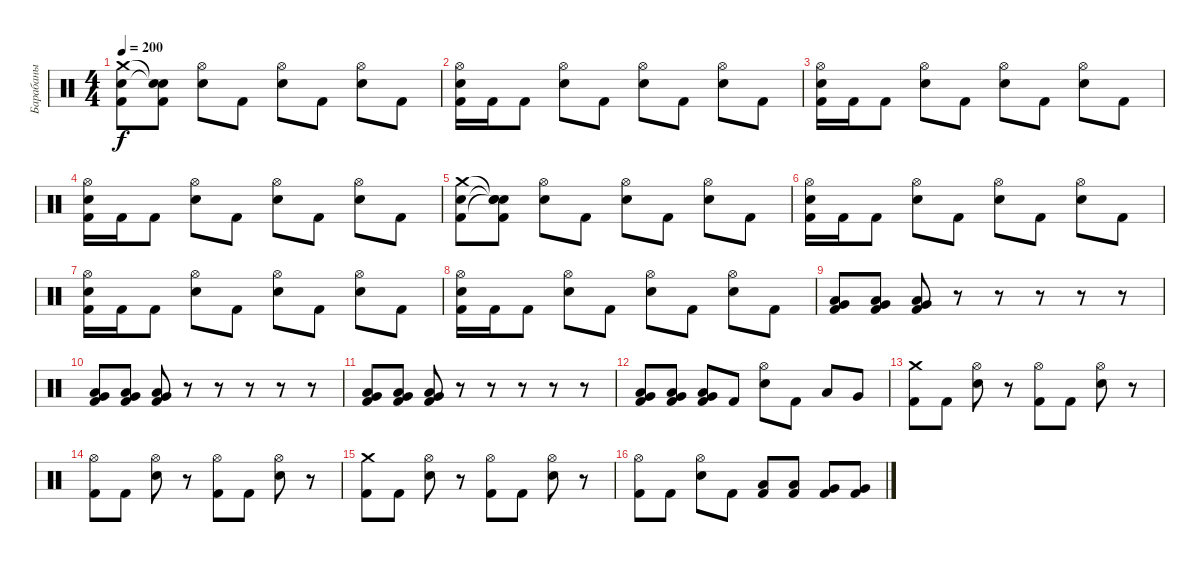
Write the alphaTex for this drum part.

\track ("Барабаны" "Барабаны") {instrument percussion}
\staff {score}
\articulation defaults
\ts (4 4)
\tempo 200
\clef neutral
\ks c
("Crash medium (hit)" "Electric Snare (hit)" "Kick (hit) 2").8{dy f} ("Snare (hit)"{t} "Snare (hit)"{t} "Kick (hit) 2").8 ("Hi-Hat (open)" "Electric Snare (hit)").8 "Kick (hit) 2".8 ("Hi-Hat (open)" "Electric Snare (hit)").8 "Kick (hit) 2".8 ("Hi-Hat (open)" "Electric Snare (hit)").8 "Kick (hit) 2".8 |
("Hi-Hat (open)" "Electric Snare (hit)" "Kick (hit) 2").16 "Kick (hit) 2".16 "Kick (hit) 2".8 ("Hi-Hat (open)" "Electric Snare (hit)").8 "Kick (hit) 2".8 ("Hi-Hat (open)" "Electric Snare (hit)").8 "Kick (hit) 2".8 ("Hi-Hat (open)" "Electric Snare (hit)").8 "Kick (hit) 2".8 |
("Hi-Hat (open)" "Electric Snare (hit)" "Kick (hit) 2").16 "Kick (hit) 2".16 "Kick (hit) 2".8 ("Hi-Hat (open)" "Electric Snare (hit)").8 "Kick (hit) 2".8 ("Hi-Hat (open)" "Electric Snare (hit)").8 "Kick (hit) 2".8 ("Hi-Hat (open)" "Electric Snare (hit)").8 "Kick (hit) 2".8 |
("Hi-Hat (open)" "Electric Snare (hit)" "Kick (hit) 2").16 "Kick (hit) 2".16 "Kick (hit) 2".8 ("Hi-Hat (open)" "Electric Snare (hit)").8 "Kick (hit) 2".8 ("Hi-Hat (open)" "Electric Snare (hit)").8 "Kick (hit) 2".8 ("Hi-Hat (open)" "Electric Snare (hit)").8 "Kick (hit) 2".8 |
("Crash medium (hit)" "Electric Snare (hit)" "Kick (hit) 2").8 ("Snare (hit)"{t} "Snare (hit)"{t} "Snare (hit)"{t} "Kick (hit) 2").8 ("Hi-Hat (open)" "Electric Snare (hit)").8 "Kick (hit) 2".8 ("Hi-Hat (open)" "Electric Snare (hit)").8 "Kick (hit) 2".8 ("Hi-Hat (open)" "Electric Snare (hit)").8 "Kick (hit) 2".8 |
("Hi-Hat (open)" "Electric Snare (hit)" "Kick (hit) 2").16 "Kick (hit) 2".16 "Kick (hit) 2".8 ("Hi-Hat (open)" "Electric Snare (hit)").8 "Kick (hit) 2".8 ("Hi-Hat (open)" "Electric Snare (hit)").8 "Kick (hit) 2".8 ("Hi-Hat (open)" "Electric Snare (hit)").8 "Kick (hit) 2".8 |
("Hi-Hat (open)" "Electric Snare (hit)" "Kick (hit) 2").16 "Kick (hit) 2".16 "Kick (hit) 2".8 ("Hi-Hat (open)" "Electric Snare (hit)").8 "Kick (hit) 2".8 ("Hi-Hat (open)" "Electric Snare (hit)").8 "Kick (hit) 2".8 ("Hi-Hat (open)" "Electric Snare (hit)").8 "Kick (hit) 2".8 |
("Hi-Hat (open)" "Electric Snare (hit)" "Kick (hit) 2").16 "Kick (hit) 2".16 "Kick (hit) 2".8 ("Hi-Hat (open)" "Electric Snare (hit)").8 "Kick (hit) 2".8 ("Hi-Hat (open)" "Electric Snare (hit)").8 "Kick (hit) 2".8 ("Hi-Hat (open)" "Electric Snare (hit)").8 "Kick (hit) 2".8 |
("Very Low Tom (hit)" "Low Tom (hit)" "Kick (hit) 2").8 ("Very Low Tom (hit)" "Low Tom (hit)" "Kick (hit) 2").8 ("Very Low Tom (hit)" "Low Tom (hit)" "Kick (hit) 2").8 r.8 r.8 r.8 r.8 r.8 |
("Very Low Tom (hit)" "Low Tom (hit)" "Kick (hit) 2").8 ("Very Low Tom (hit)" "Low Tom (hit)" "Kick (hit) 2").8 ("Very Low Tom (hit)" "Low Tom (hit)" "Kick (hit) 2").8 r.8 r.8 r.8 r.8 r.8 |
("Very Low Tom (hit)" "Low Tom (hit)" "Kick (hit) 2").8 ("Very Low Tom (hit)" "Low Tom (hit)" "Kick (hit) 2").8 ("Very Low Tom (hit)" "Low Tom (hit)" "Kick (hit) 2").8 r.8 r.8 r.8 r.8 r.8 |
("Very Low Tom (hit)" "Low Tom (hit)" "Kick (hit) 2").8 ("Very Low Tom (hit)" "Low Tom (hit)" "Kick (hit) 2").8 ("Very Low Tom (hit)" "Low Tom (hit)" "Kick (hit) 2").8 "Kick (hit) 2".8 ("Hi-Hat (open)" "Electric Snare (hit)").8 "Kick (hit) 2".8 "Low Tom (hit)".8 "Very Low Tom (hit)".8 |
("Crash medium (hit)" "Kick (hit) 2").8 "Kick (hit) 2".8 ("Hi-Hat (open)" "Electric Snare (hit)").8 r.8 ("Hi-Hat (open)" "Kick (hit) 2").8 "Kick (hit) 2".8 ("Hi-Hat (open)" "Electric Snare (hit)").8 r.8 |
("Hi-Hat (open)" "Kick (hit) 2").8 "Kick (hit) 2".8 ("Hi-Hat (open)" "Electric Snare (hit)").8 r.8 ("Hi-Hat (open)" "Kick (hit) 2").8 "Kick (hit) 2".8 ("Hi-Hat (open)" "Electric Snare (hit)").8 r.8 |
("Crash medium (hit)" "Kick (hit) 2").8 "Kick (hit) 2".8 ("Hi-Hat (open)" "Electric Snare (hit)").8 r.8 ("Hi-Hat (open)" "Kick (hit) 2").8 "Kick (hit) 2".8 ("Hi-Hat (open)" "Electric Snare (hit)").8 r.8 |
("Hi-Hat (open)" "Kick (hit) 2").8 "Kick (hit) 2".8 ("Hi-Hat (open)" "Electric Snare (hit)").8 "Kick (hit) 2".8 ("Low Tom (hit)" "Kick (hit) 2").8 ("Low Tom (hit)" "Kick (hit) 2").8 ("Very Low Tom (hit)" "Kick (hit) 2").8 ("Very Low Tom (hit)" "Kick (hit) 2").8
